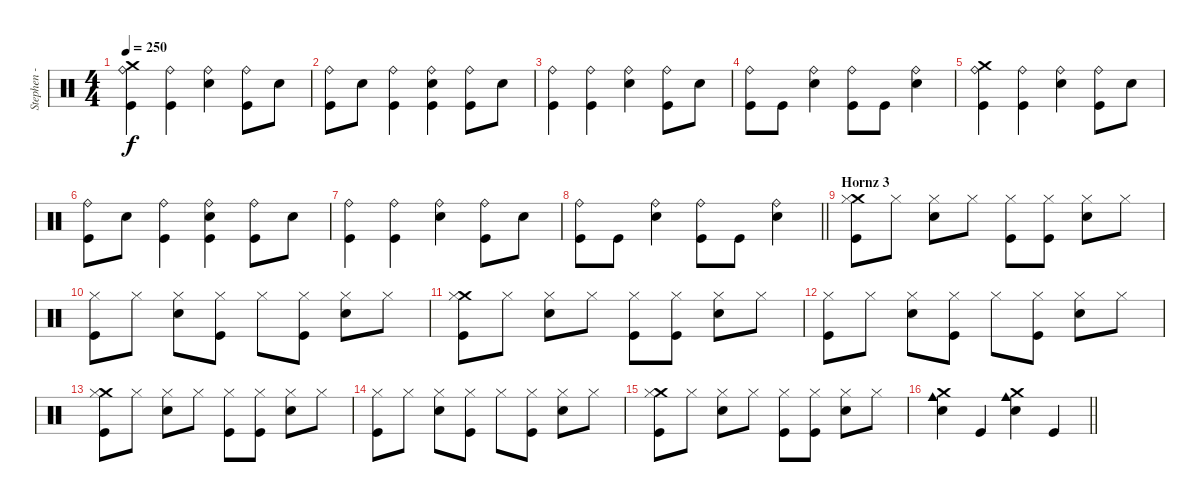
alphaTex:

\track ("Stephen - Drums" "Stephen - ") {instrument percussion}
\staff {score}
\articulation defaults
\ts (4 4)
\tempo 250
\clef neutral
\ks c
("Crash medium (hit)" "Ride (bell)" "Kick (hit)").4{dy f} ("Ride (bell)" "Kick (hit)").4 ("Snare (hit) 2" "Ride (bell)").4 ("Ride (bell)" "Kick (hit)").8 "Snare (hit) 2".8 |
("Ride (bell)" "Kick (hit)").8 "Snare (hit) 2".8 ("Ride (bell)" "Kick (hit)").4 ("Snare (hit) 2" "Ride (bell)" "Kick (hit)").4 ("Ride (bell)" "Kick (hit)").8 "Snare (hit) 2".8 |
("Ride (bell)" "Kick (hit)").4 ("Ride (bell)" "Kick (hit)").4 ("Snare (hit) 2" "Ride (bell)").4 ("Ride (bell)" "Kick (hit)").8 "Snare (hit) 2".8 |
("Ride (bell)" "Kick (hit)").8 "Kick (hit)".8 ("Snare (hit) 2" "Ride (bell)").4 ("Ride (bell)" "Kick (hit)").8 "Kick (hit)".8 ("Snare (hit) 2" "Ride (bell)").4 |
("Crash medium (hit)" "Ride (bell)" "Kick (hit)").4 ("Ride (bell)" "Kick (hit)").4 ("Snare (hit) 2" "Ride (bell)").4 ("Ride (bell)" "Kick (hit)").8 "Snare (hit) 2".8 |
("Ride (bell)" "Kick (hit)").8 "Snare (hit) 2".8 ("Ride (bell)" "Kick (hit)").4 ("Snare (hit) 2" "Ride (bell)" "Kick (hit)").4 ("Ride (bell)" "Kick (hit)").8 "Snare (hit) 2".8 |
("Ride (bell)" "Kick (hit)").4 ("Ride (bell)" "Kick (hit)").4 ("Snare (hit) 2" "Ride (bell)").4 ("Ride (bell)" "Kick (hit)").8 "Snare (hit) 2".8 |
\barLineRight lightlight
("Ride (bell)" "Kick (hit)").8 "Kick (hit)".8 ("Snare (hit) 2" "Ride (bell)").4 ("Ride (bell)" "Kick (hit)").8 "Kick (hit)".8 ("Snare (hit) 2" "Ride (bell)").4 |
\section ("" "Hornz 3")
("Crash medium (hit)" "Hi-Hat (closed)" "Kick (hit)").8 "Hi-Hat (closed)".8 ("Hi-Hat (closed)" "Snare (hit) 2").8 "Hi-Hat (closed)".8 ("Hi-Hat (closed)" "Kick (hit)").8 ("Hi-Hat (closed)" "Kick (hit)").8 ("Hi-Hat (closed)" "Snare (hit) 2").8 "Hi-Hat (closed)".8 |
("Hi-Hat (closed)" "Kick (hit)").8 "Hi-Hat (closed)".8 ("Hi-Hat (closed)" "Snare (hit) 2").8 ("Hi-Hat (closed)" "Kick (hit)").8 "Hi-Hat (closed)".8 ("Hi-Hat (closed)" "Kick (hit)").8 ("Hi-Hat (closed)" "Snare (hit) 2").8 "Hi-Hat (closed)".8 |
("Crash medium (hit)" "Hi-Hat (closed)" "Kick (hit)").8 "Hi-Hat (closed)".8 ("Hi-Hat (closed)" "Snare (hit) 2").8 "Hi-Hat (closed)".8 ("Hi-Hat (closed)" "Kick (hit)").8 ("Hi-Hat (closed)" "Kick (hit)").8 ("Hi-Hat (closed)" "Snare (hit) 2").8 "Hi-Hat (closed)".8 |
("Hi-Hat (closed)" "Kick (hit)").8 "Hi-Hat (closed)".8 ("Hi-Hat (closed)" "Snare (hit) 2").8 ("Hi-Hat (closed)" "Kick (hit)").8 "Hi-Hat (closed)".8 ("Hi-Hat (closed)" "Kick (hit)").8 ("Hi-Hat (closed)" "Snare (hit) 2").8 "Hi-Hat (closed)".8 |
("Crash medium (hit)" "Hi-Hat (closed)" "Kick (hit)").8 "Hi-Hat (closed)".8 ("Hi-Hat (closed)" "Snare (hit) 2").8 "Hi-Hat (closed)".8 ("Hi-Hat (closed)" "Kick (hit)").8 ("Hi-Hat (closed)" "Kick (hit)").8 ("Hi-Hat (closed)" "Snare (hit) 2").8 "Hi-Hat (closed)".8 |
("Hi-Hat (closed)" "Kick (hit)").8 "Hi-Hat (closed)".8 ("Hi-Hat (closed)" "Snare (hit) 2").8 ("Hi-Hat (closed)" "Kick (hit)").8 "Hi-Hat (closed)".8 ("Hi-Hat (closed)" "Kick (hit)").8 ("Hi-Hat (closed)" "Snare (hit) 2").8 "Hi-Hat (closed)".8 |
("Crash medium (hit)" "Hi-Hat (closed)" "Kick (hit)").8 "Hi-Hat (closed)".8 ("Hi-Hat (closed)" "Snare (hit) 2").8 "Hi-Hat (closed)".8 ("Hi-Hat (closed)" "Kick (hit)").8 ("Hi-Hat (closed)" "Kick (hit)").8 ("Hi-Hat (closed)" "Snare (hit) 2").8 "Hi-Hat (closed)".8 |
\barLineRight lightlight
("Crash medium (hit)" "Cowbell medium (hit)" "Snare (hit) 2").4 "Kick (hit)".4 ("Crash medium (hit)" "Cowbell medium (hit)" "Snare (hit) 2").4 "Kick (hit)".4
